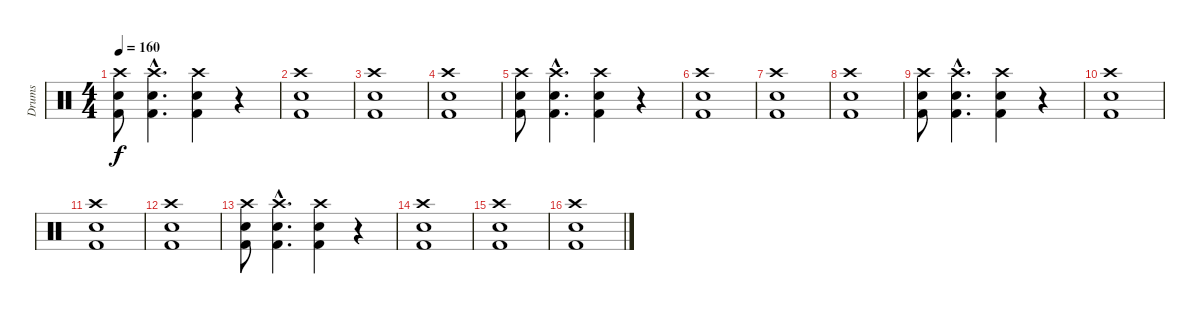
\track ("Drums" "Drums") {instrument percussion}
\staff {score}
\articulation defaults
\ts (4 4)
\tempo 160
\clef neutral
\ks c
("Crash high (hit)" "Snare (hit) 2" "Kick (hit) 2").8{dy f} ("Crash high (hit)"{hac} "Snare (hit) 2"{hac} "Kick (hit) 2"{hac}).4{d} ("Snare (hit) 2" "Crash high (hit)" "Kick (hit) 2").4 r.4 |
("Crash high (hit)" "Kick (hit) 2" "Snare (hit) 2").1 |
("Kick (hit) 2" "Snare (hit) 2" "Crash high (hit)").1 |
("Crash high (hit)" "Snare (hit) 2" "Kick (hit) 2").1 |
("Crash high (hit)" "Snare (hit) 2" "Kick (hit) 2").8 ("Crash high (hit)"{hac} "Snare (hit) 2"{hac} "Kick (hit) 2"{hac}).4{d} ("Snare (hit) 2" "Crash high (hit)" "Kick (hit) 2").4 r.4 |
("Crash high (hit)" "Kick (hit) 2" "Snare (hit) 2").1 |
("Kick (hit) 2" "Snare (hit) 2" "Crash high (hit)").1 |
("Crash high (hit)" "Snare (hit) 2" "Kick (hit) 2").1 |
("Crash high (hit)" "Snare (hit) 2" "Kick (hit) 2").8 ("Crash high (hit)"{hac} "Snare (hit) 2"{hac} "Kick (hit) 2"{hac}).4{d} ("Snare (hit) 2" "Crash high (hit)" "Kick (hit) 2").4 r.4 |
("Crash high (hit)" "Kick (hit) 2" "Snare (hit) 2").1 |
("Kick (hit) 2" "Snare (hit) 2" "Crash high (hit)").1 |
("Crash high (hit)" "Snare (hit) 2" "Kick (hit) 2").1 |
("Crash high (hit)" "Snare (hit) 2" "Kick (hit) 2").8 ("Crash high (hit)"{hac} "Snare (hit) 2"{hac} "Kick (hit) 2"{hac}).4{d} ("Snare (hit) 2" "Crash high (hit)" "Kick (hit) 2").4 r.4 |
("Crash high (hit)" "Kick (hit) 2" "Snare (hit) 2").1 |
("Kick (hit) 2" "Snare (hit) 2" "Crash high (hit)").1 |
("Crash high (hit)" "Snare (hit) 2" "Kick (hit) 2").1
